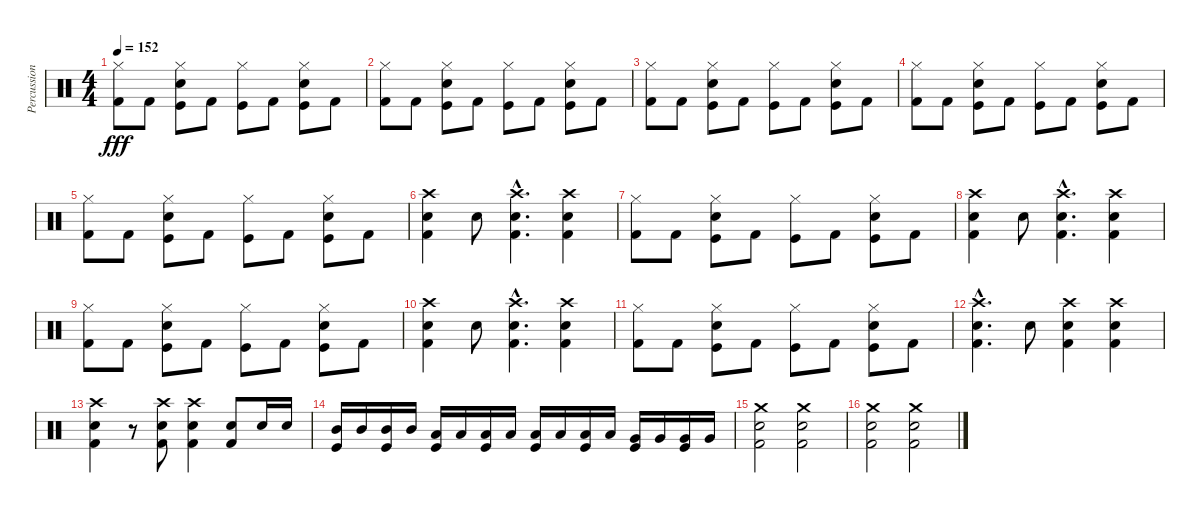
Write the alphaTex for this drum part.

\track ("Percussions" "Percussion") {instrument percussion}
\staff {score}
\articulation defaults
\ts (4 4)
\tempo 152
\clef neutral
\ks c
("Hi-Hat (closed)" "Kick (hit) 2").8{dy fff} "Kick (hit) 2".8 ("Hi-Hat (closed)" "Snare (hit) 2" "Kick (hit)").8 "Kick (hit) 2".8 ("Hi-Hat (closed)" "Kick (hit)").8 "Kick (hit) 2".8 ("Hi-Hat (closed)" "Snare (hit) 2" "Kick (hit)").8 "Kick (hit) 2".8 |
("Hi-Hat (closed)" "Kick (hit) 2").8 "Kick (hit) 2".8 ("Hi-Hat (closed)" "Snare (hit) 2" "Kick (hit)").8 "Kick (hit) 2".8 ("Hi-Hat (closed)" "Kick (hit)").8 "Kick (hit) 2".8 ("Hi-Hat (closed)" "Snare (hit) 2" "Kick (hit)").8 "Kick (hit) 2".8 |
("Hi-Hat (closed)" "Kick (hit) 2").8 "Kick (hit) 2".8 ("Hi-Hat (closed)" "Snare (hit) 2" "Kick (hit)").8 "Kick (hit) 2".8 ("Hi-Hat (closed)" "Kick (hit)").8 "Kick (hit) 2".8 ("Hi-Hat (closed)" "Snare (hit) 2" "Kick (hit)").8 "Kick (hit) 2".8 |
("Hi-Hat (closed)" "Kick (hit) 2").8 "Kick (hit) 2".8 ("Hi-Hat (closed)" "Snare (hit) 2" "Kick (hit)").8 "Kick (hit) 2".8 ("Hi-Hat (closed)" "Kick (hit)").8 "Kick (hit) 2".8 ("Hi-Hat (closed)" "Snare (hit) 2" "Kick (hit)").8 "Kick (hit) 2".8 |
("Hi-Hat (closed)" "Kick (hit) 2").8 "Kick (hit) 2".8 ("Hi-Hat (closed)" "Snare (hit) 2" "Kick (hit)").8 "Kick (hit) 2".8 ("Hi-Hat (closed)" "Kick (hit)").8 "Kick (hit) 2".8 ("Hi-Hat (closed)" "Snare (hit) 2" "Kick (hit)").8 "Kick (hit) 2".8 |
("Crash high (hit)" "Snare (hit) 2" "Kick (hit) 2").4 "Snare (hit) 2".8 ("Crash high (hit)"{hac} "Snare (hit) 2"{hac} "Kick (hit) 2"{hac}).4{d} ("Crash high (hit)" "Snare (hit) 2" "Kick (hit) 2").4 |
("Hi-Hat (closed)" "Kick (hit) 2").8 "Kick (hit) 2".8 ("Hi-Hat (closed)" "Snare (hit) 2" "Kick (hit)").8 "Kick (hit) 2".8 ("Hi-Hat (closed)" "Kick (hit)").8 "Kick (hit) 2".8 ("Hi-Hat (closed)" "Snare (hit) 2" "Kick (hit)").8 "Kick (hit) 2".8 |
("Crash high (hit)" "Snare (hit) 2" "Kick (hit) 2").4 "Snare (hit) 2".8 ("Crash high (hit)"{hac} "Snare (hit) 2"{hac} "Kick (hit) 2"{hac}).4{d} ("Crash high (hit)" "Snare (hit) 2" "Kick (hit) 2").4 |
("Hi-Hat (closed)" "Kick (hit) 2").8 "Kick (hit) 2".8 ("Hi-Hat (closed)" "Snare (hit) 2" "Kick (hit)").8 "Kick (hit) 2".8 ("Hi-Hat (closed)" "Kick (hit)").8 "Kick (hit) 2".8 ("Hi-Hat (closed)" "Snare (hit) 2" "Kick (hit)").8 "Kick (hit) 2".8 |
("Crash high (hit)" "Snare (hit) 2" "Kick (hit) 2").4 "Snare (hit) 2".8 ("Crash high (hit)"{hac} "Snare (hit) 2"{hac} "Kick (hit) 2"{hac}).4{d} ("Crash high (hit)" "Snare (hit) 2" "Kick (hit) 2").4 |
("Hi-Hat (closed)" "Kick (hit) 2").8 "Kick (hit) 2".8 ("Hi-Hat (closed)" "Snare (hit) 2" "Kick (hit)").8 "Kick (hit) 2".8 ("Hi-Hat (closed)" "Kick (hit)").8 "Kick (hit) 2".8 ("Hi-Hat (closed)" "Snare (hit) 2" "Kick (hit)").8 "Kick (hit) 2".8 |
("Crash high (hit)"{hac} "Snare (hit) 2"{hac} "Kick (hit) 2"{hac}).4{d} "Snare (hit) 2".8 ("Crash high (hit)" "Snare (hit) 2" "Kick (hit) 2").4 ("Crash high (hit)" "Snare (hit) 2" "Kick (hit) 2").4 |
("Crash high (hit)" "Snare (hit) 2" "Kick (hit) 2").4 r.8 ("Crash high (hit)" "Snare (hit) 2" "Kick (hit) 2").8 ("Crash high (hit)" "Snare (hit) 2" "Kick (hit) 2").4 ("Snare (hit) 2" "Kick (hit) 2").8 "Snare (hit) 2".16 "Snare (hit) 2".16 |
("Mid Tom (hit)" "Kick (hit)").16 "Mid Tom (hit)".16 ("Mid Tom (hit)" "Kick (hit)").16 "Mid Tom (hit)".16 ("Low Tom (hit)" "Kick (hit)").16 "Low Tom (hit)".16 ("Low Tom (hit)" "Kick (hit)").16 "Low Tom (hit)".16 ("Low Floor Tom (hit)" "Kick (hit)").16 "Low Floor Tom (hit)".16 ("Low Floor Tom (hit)" "Kick (hit)").16 "Low Floor Tom (hit)".16 ("Very Low Tom (hit)" "Kick (hit)").16 "Very Low Tom (hit)".16 ("Very Low Tom (hit)" "Kick (hit)").16 "Very Low Tom (hit)".16 |
("Crash medium (hit)" "Snare (hit) 2" "Kick (hit) 2").2 ("Crash medium (hit)" "Snare (hit) 2" "Kick (hit) 2").2 |
("Crash medium (hit)" "Snare (hit) 2" "Kick (hit) 2").2 ("Crash medium (hit)" "Snare (hit) 2" "Kick (hit) 2").2
